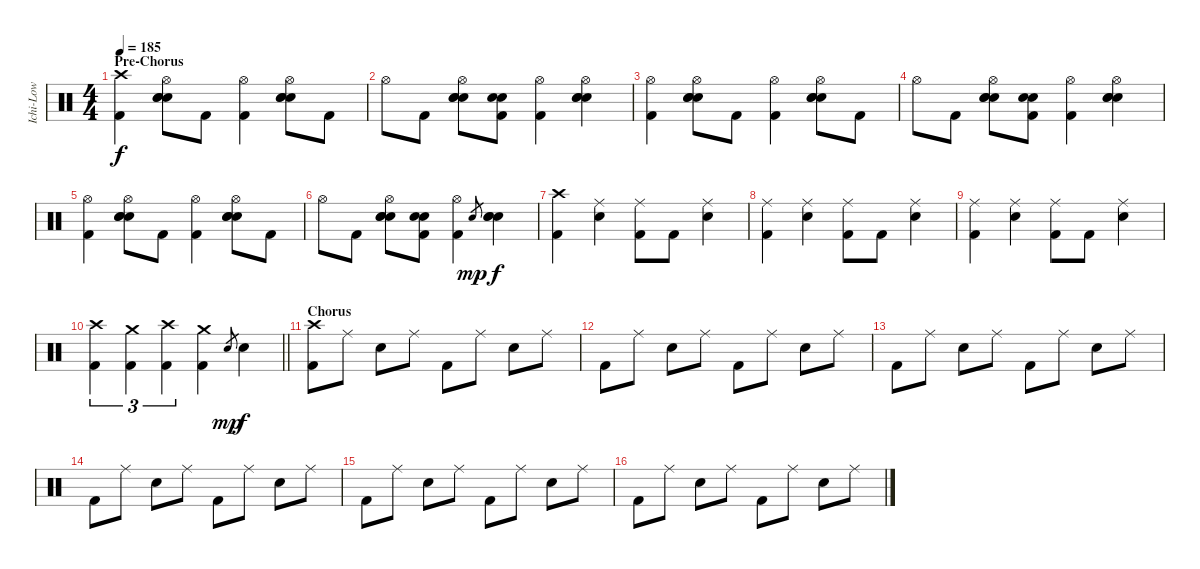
\track ("Ichi-Low" "Ichi-Low") {instrument percussion}
\staff {score}
\articulation defaults
\ts (4 4)
\section ("" "Pre-Chorus")
\tempo 185
\clef neutral
\ks c
("Crash high (hit)" "Kick (hit) 2").4{dy f} ("Hi-Hat (open)" "Hand Clap (hit)" "Hand Clap (hit)" "Electric Snare (hit)").8 "Kick (hit) 2".8 ("Hi-Hat (open)" "Kick (hit) 2").4 ("Hi-Hat (open)" "Hand Clap (hit)" "Hand Clap (hit)" "Electric Snare (hit)").8 "Kick (hit) 2".8 |
"Hi-Hat (open)".8 "Kick (hit) 2".8 ("Hi-Hat (open)" "Hand Clap (hit)" "Hand Clap (hit)" "Electric Snare (hit)").8 ("Hand Clap (hit)" "Hand Clap (hit)" "Kick (hit) 2").8 ("Hi-Hat (open)" "Kick (hit) 2").4 ("Hi-Hat (open)" "Hand Clap (hit)" "Hand Clap (hit)" "Electric Snare (hit)").4 |
("Hi-Hat (open)" "Kick (hit) 2").4 ("Hi-Hat (open)" "Hand Clap (hit)" "Hand Clap (hit)" "Electric Snare (hit)").8 "Kick (hit) 2".8 ("Hi-Hat (open)" "Kick (hit) 2").4 ("Hi-Hat (open)" "Hand Clap (hit)" "Hand Clap (hit)" "Electric Snare (hit)").8 "Kick (hit) 2".8 |
"Hi-Hat (open)".8 "Kick (hit) 2".8 ("Hi-Hat (open)" "Hand Clap (hit)" "Hand Clap (hit)" "Electric Snare (hit)").8 ("Hand Clap (hit)" "Hand Clap (hit)" "Kick (hit) 2").8 ("Hi-Hat (open)" "Kick (hit) 2").4 ("Hi-Hat (open)" "Hand Clap (hit)" "Hand Clap (hit)" "Electric Snare (hit)").4 |
("Hi-Hat (open)" "Kick (hit) 2").4 ("Hi-Hat (open)" "Hand Clap (hit)" "Hand Clap (hit)" "Electric Snare (hit)").8 "Kick (hit) 2".8 ("Hi-Hat (open)" "Kick (hit) 2").4 ("Hi-Hat (open)" "Hand Clap (hit)" "Hand Clap (hit)" "Electric Snare (hit)").8 "Kick (hit) 2".8 |
"Hi-Hat (open)".8 "Kick (hit) 2".8 ("Hi-Hat (open)" "Hand Clap (hit)" "Hand Clap (hit)" "Electric Snare (hit)").8 ("Hand Clap (hit)" "Hand Clap (hit)" "Kick (hit) 2").8 ("Hi-Hat (open)" "Kick (hit) 2").4 "Electric Snare (hit)".8{gr dy mp} ("Hand Clap (hit)" "Hand Clap (hit)" "Electric Snare (hit)").4{dy f} |
("Crash high (hit)" "Kick (hit) 2").4 ("Ride (middle)" "Electric Snare (hit)").4 ("Ride (middle)" "Kick (hit) 2").8 "Kick (hit) 2".8 ("Ride (middle)" "Electric Snare (hit)").4 |
("Ride (middle)" "Kick (hit) 2").4 ("Ride (middle)" "Electric Snare (hit)").4 ("Ride (middle)" "Kick (hit) 2").8 "Kick (hit) 2".8 ("Ride (middle)" "Electric Snare (hit)").4 |
("Ride (middle)" "Kick (hit) 2").4 ("Ride (middle)" "Electric Snare (hit)").4 ("Ride (middle)" "Kick (hit) 2").8 "Kick (hit) 2".8 ("Ride (middle)" "Electric Snare (hit)").4 |
\barLineRight lightlight
("Crash high (hit)" "Kick (hit) 2").4{tu (3 2)} ("Crash medium (hit)" "Kick (hit) 2").4{tu (3 2)} ("Crash high (hit)" "Kick (hit) 2").4{tu (3 2)} ("Crash medium (hit)" "Kick (hit) 2").4 "Electric Snare (hit)".8{gr dy mp} "Electric Snare (hit)".4{dy f} |
\section ("" "Chorus")
("Crash high (hit)" "Kick (hit) 2").8 "Ride (middle)".8 "Electric Snare (hit)".8 "Ride (middle)".8 "Kick (hit) 2".8 "Ride (middle)".8 "Electric Snare (hit)".8 "Ride (middle)".8 |
"Kick (hit) 2".8 "Ride (middle)".8 "Electric Snare (hit)".8 "Ride (middle)".8 "Kick (hit) 2".8 "Ride (middle)".8 "Electric Snare (hit)".8 "Ride (middle)".8 |
"Kick (hit) 2".8 "Ride (middle)".8 "Electric Snare (hit)".8 "Ride (middle)".8 "Kick (hit) 2".8 "Ride (middle)".8 "Electric Snare (hit)".8 "Ride (middle)".8 |
"Kick (hit) 2".8 "Ride (middle)".8 "Electric Snare (hit)".8 "Ride (middle)".8 "Kick (hit) 2".8 "Ride (middle)".8 "Electric Snare (hit)".8 "Ride (middle)".8 |
"Kick (hit) 2".8 "Ride (middle)".8 "Electric Snare (hit)".8 "Ride (middle)".8 "Kick (hit) 2".8 "Ride (middle)".8 "Electric Snare (hit)".8 "Ride (middle)".8 |
"Kick (hit) 2".8 "Ride (middle)".8 "Electric Snare (hit)".8 "Ride (middle)".8 "Kick (hit) 2".8 "Ride (middle)".8 "Electric Snare (hit)".8 "Ride (middle)".8
